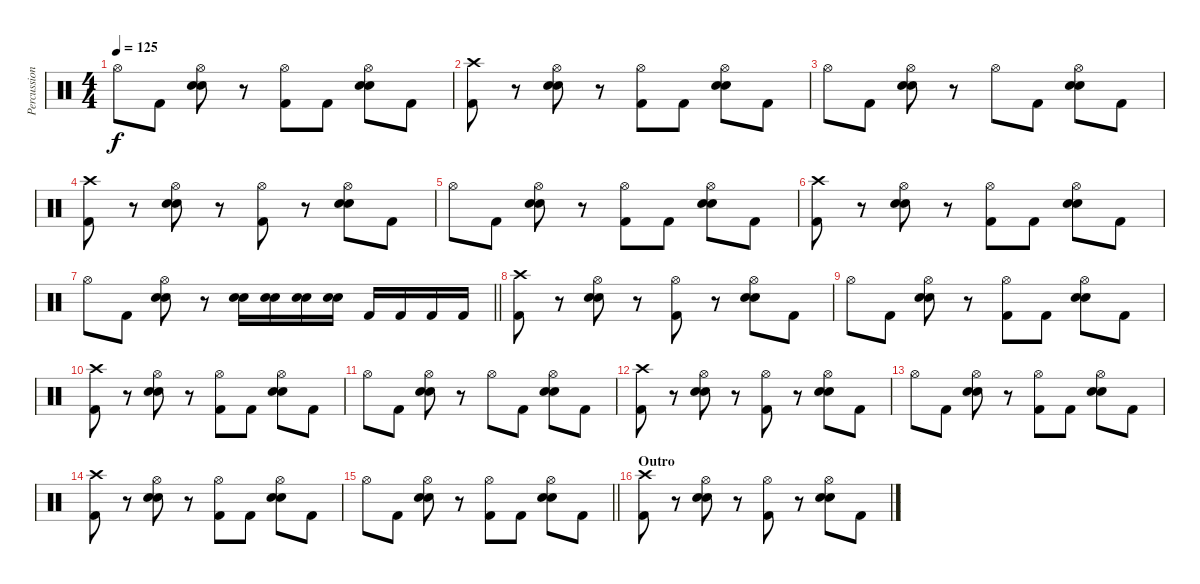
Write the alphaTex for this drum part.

\track ("Percussion" "Percussion") {instrument percussion}
\staff {score}
\articulation defaults
\ts (4 4)
\tempo 125
\clef neutral
\ks c "Hi-Hat (open)".8{dy f} "Kick (hit) 2".8
("Hi-Hat (open)" "Snare (hit) 2" "Electric Snare (hit)").8 r.8 ("Hi-Hat (open)" "Kick (hit) 2").8 "Kick (hit) 2".8 ("Hi-Hat (open)" "Snare (hit) 2" "Electric Snare (hit)").8 "Kick (hit) 2".8 |
("Crash high (hit)" "Kick (hit) 2").8 r.8 ("Hi-Hat (open)" "Snare (hit) 2" "Electric Snare (hit)").8 r.8 ("Hi-Hat (open)" "Kick (hit) 2").8 "Kick (hit) 2".8 ("Hi-Hat (open)" "Snare (hit) 2" "Electric Snare (hit)").8 "Kick (hit) 2".8 |
"Hi-Hat (open)".8 "Kick (hit) 2".8 ("Hi-Hat (open)" "Snare (hit) 2" "Electric Snare (hit)").8 r.8 "Hi-Hat (open)".8 "Kick (hit) 2".8 ("Hi-Hat (open)" "Snare (hit) 2" "Electric Snare (hit)").8 "Kick (hit) 2".8 |
("Crash high (hit)" "Kick (hit) 2").8 r.8 ("Hi-Hat (open)" "Snare (hit) 2" "Electric Snare (hit)").8 r.8 ("Hi-Hat (open)" "Kick (hit) 2").8 r.8 ("Hi-Hat (open)" "Snare (hit) 2" "Electric Snare (hit)").8 "Kick (hit) 2".8 |
"Hi-Hat (open)".8 "Kick (hit) 2".8 ("Hi-Hat (open)" "Snare (hit) 2" "Electric Snare (hit)").8 r.8 ("Hi-Hat (open)" "Kick (hit) 2").8 "Kick (hit) 2".8 ("Hi-Hat (open)" "Snare (hit) 2" "Electric Snare (hit)").8 "Kick (hit) 2".8 |
("Crash high (hit)" "Kick (hit) 2").8 r.8 ("Hi-Hat (open)" "Snare (hit) 2" "Electric Snare (hit)").8 r.8 ("Hi-Hat (open)" "Kick (hit) 2").8 "Kick (hit) 2".8 ("Hi-Hat (open)" "Snare (hit) 2" "Electric Snare (hit)").8 "Kick (hit) 2".8 |
\barLineRight lightlight "Hi-Hat (open)".8 "Kick (hit) 2".8
("Hi-Hat (open)" "Snare (hit) 2" "Electric Snare (hit)").8 r.8 ("Snare (hit) 2" "Electric Snare (hit)").16 ("Snare (hit) 2" "Electric Snare (hit)").16 ("Snare (hit) 2" "Electric Snare (hit)").16 ("Snare (hit) 2" "Electric Snare (hit)").16 "Kick (hit) 2".16 "Kick (hit) 2".16 "Kick (hit) 2".16 "Kick (hit) 2".16 |
("Crash high (hit)" "Kick (hit) 2").8 r.8 ("Hi-Hat (open)" "Snare (hit) 2" "Electric Snare (hit)").8 r.8 ("Hi-Hat (open)" "Kick (hit) 2").8 r.8 ("Hi-Hat (open)" "Snare (hit) 2" "Electric Snare (hit)").8 "Kick (hit) 2".8 |
"Hi-Hat (open)".8 "Kick (hit) 2".8 ("Hi-Hat (open)" "Snare (hit) 2" "Electric Snare (hit)").8 r.8 ("Hi-Hat (open)" "Kick (hit) 2").8 "Kick (hit) 2".8 ("Hi-Hat (open)" "Snare (hit) 2" "Electric Snare (hit)").8 "Kick (hit) 2".8 |
("Crash high (hit)" "Kick (hit) 2").8 r.8 ("Hi-Hat (open)" "Snare (hit) 2" "Electric Snare (hit)").8 r.8 ("Hi-Hat (open)" "Kick (hit) 2").8 "Kick (hit) 2".8 ("Hi-Hat (open)" "Snare (hit) 2" "Electric Snare (hit)").8 "Kick (hit) 2".8 |
"Hi-Hat (open)".8 "Kick (hit) 2".8 ("Hi-Hat (open)" "Snare (hit) 2" "Electric Snare (hit)").8 r.8 "Hi-Hat (open)".8 "Kick (hit) 2".8 ("Hi-Hat (open)" "Snare (hit) 2" "Electric Snare (hit)").8 "Kick (hit) 2".8 |
("Crash high (hit)" "Kick (hit) 2").8 r.8 ("Hi-Hat (open)" "Snare (hit) 2" "Electric Snare (hit)").8 r.8 ("Hi-Hat (open)" "Kick (hit) 2").8 r.8 ("Hi-Hat (open)" "Snare (hit) 2" "Electric Snare (hit)").8 "Kick (hit) 2".8 |
"Hi-Hat (open)".8 "Kick (hit) 2".8 ("Hi-Hat (open)" "Snare (hit) 2" "Electric Snare (hit)").8 r.8 ("Hi-Hat (open)" "Kick (hit) 2").8 "Kick (hit) 2".8 ("Hi-Hat (open)" "Snare (hit) 2" "Electric Snare (hit)").8 "Kick (hit) 2".8 |
("Crash high (hit)" "Kick (hit) 2").8 r.8 ("Hi-Hat (open)" "Snare (hit) 2" "Electric Snare (hit)").8 r.8 ("Hi-Hat (open)" "Kick (hit) 2").8 "Kick (hit) 2".8 ("Hi-Hat (open)" "Snare (hit) 2" "Electric Snare (hit)").8 "Kick (hit) 2".8 |
\barLineRight lightlight "Hi-Hat (open)".8 "Kick (hit) 2".8
("Hi-Hat (open)" "Snare (hit) 2" "Electric Snare (hit)").8 r.8 ("Hi-Hat (open)" "Kick (hit) 2").8 "Kick (hit) 2".8 ("Hi-Hat (open)" "Snare (hit) 2" "Electric Snare (hit)").8 "Kick (hit) 2".8 |
\section ("" "Outro")
("Crash high (hit)" "Kick (hit) 2").8 r.8 ("Hi-Hat (open)" "Snare (hit) 2" "Electric Snare (hit)").8 r.8 ("Hi-Hat (open)" "Kick (hit) 2").8 r.8 ("Hi-Hat (open)" "Snare (hit) 2" "Electric Snare (hit)").8 "Kick (hit) 2".8
